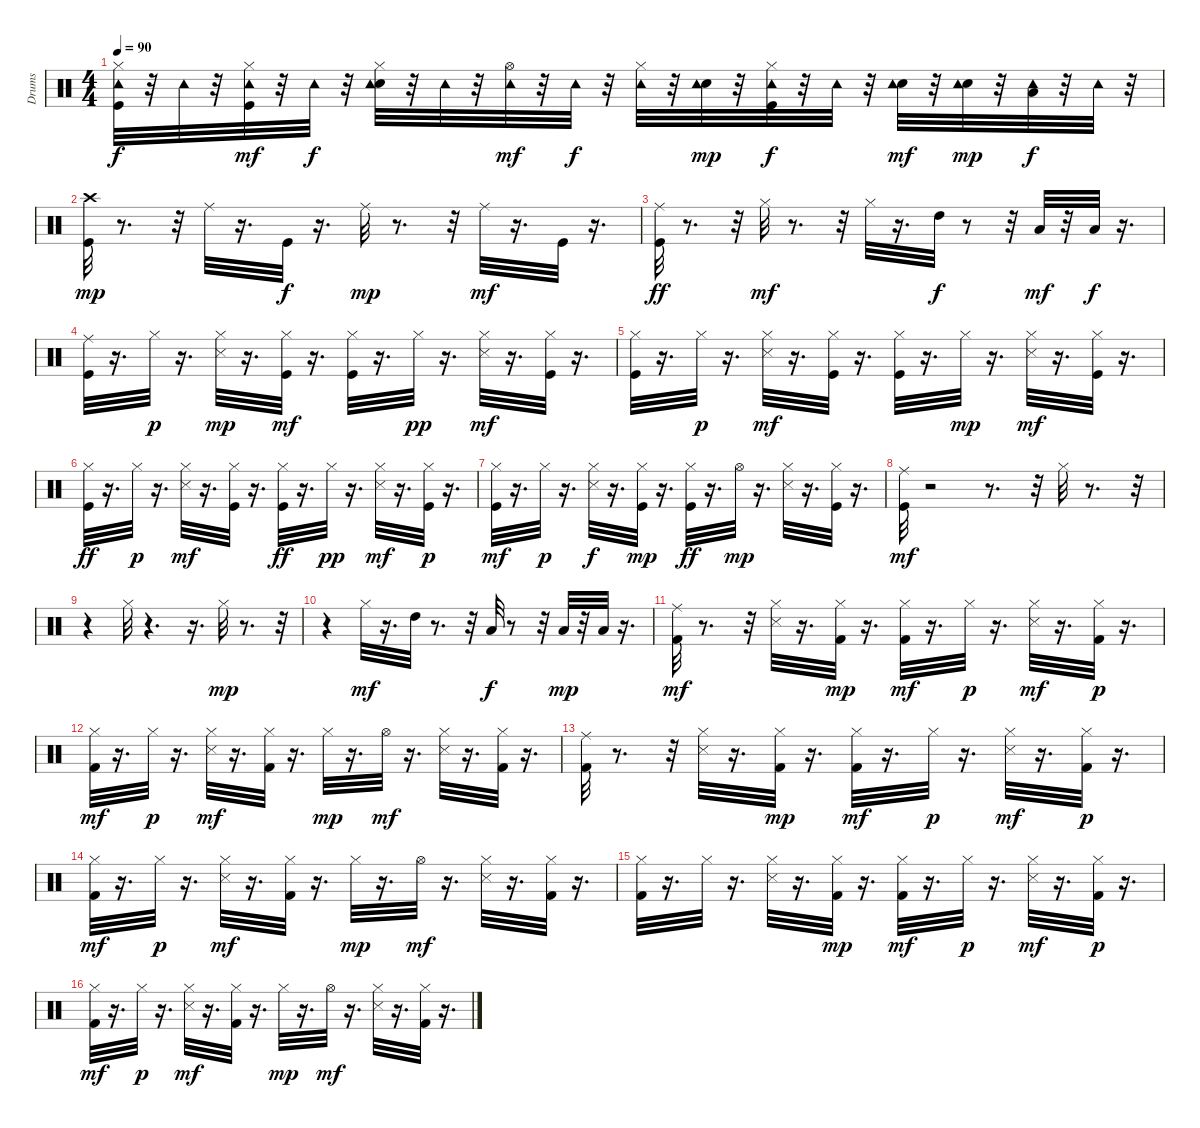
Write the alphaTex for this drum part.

\track ("Drums               " "Drums     ") {instrument percussion}
\staff {score}
\articulation defaults
\ts (4 4)
\tempo 90
\clef neutral
\ks c
("Hi-Hat (closed)" "Kick (hit)" "Tambourine (hit)").32{dy f} r.32 "Tambourine (hit)".32 r.32 ("Hi-Hat (closed)" "Kick (hit)" "Tambourine (hit)").32{dy mf} r.32 "Tambourine (hit)".32{dy f} r.32 ("Hi-Hat (closed)" "Electric Snare (hit)" "Tambourine (hit)").32 r.32 "Tambourine (hit)".32 r.32 ("Hi-Hat (open)" "Tambourine (hit)").32{dy mf} r.32 "Tambourine (hit)".32{dy f} r.32 ("Hi-Hat (closed)" "Tambourine (hit)").32 r.32 ("Electric Snare (hit)" "Tambourine (hit)").32{dy mp} r.32 ("Hi-Hat (closed)" "Kick (hit)" "Tambourine (hit)").32{dy f} r.32 "Tambourine (hit)".32 r.32 ("Electric Snare (hit)" "Tambourine (hit)").32{dy mf} r.32 ("Electric Snare (hit)" "Tambourine (hit)").32{dy mp} r.32 ("Low Tom (hit)" "Tambourine (hit)").32{dy f} r.32 "Tambourine (hit)".32 r.32 |
("Crash high (hit)" "Kick (hit)").32{dy mp} r.8{d} r.32 "Ride (middle)".32 r.16{d} "Kick (hit)".32{dy f} r.16{d} "Ride (middle)".32{dy mp} r.8{d} r.32 "Ride (middle)".32{dy mf} r.16{d} "Kick (hit)".32 r.16{d} |
("Kick (hit)" "Ride (middle)").32{dy ff} r.8{d} r.32 "Hi-Hat (closed)".32{dy mf} r.8{d} r.32 "Hi-Hat (closed)".32 r.16{d} "High Tom (hit)".32{dy f} r.8 r.32 "Low Tom (hit)".32{dy mf} r.32 "Low Floor Tom (hit)".32{dy f} r.16{d} |
("Ride (middle)" "Kick (hit)").32 r.16{d} "Hi-Hat (closed)".32{dy p} r.16{d} ("Snare (side stick) 3" "Hi-Hat (closed)").32{dy mp} r.16{d} ("Hi-Hat (closed)" "Kick (hit)").32{dy mf} r.16{d} ("Hi-Hat (closed)" "Kick (hit)").32 r.16{d} "Hi-Hat (closed)".32{dy pp} r.16{d} ("Hi-Hat (closed)" "Snare (side stick) 3").32{dy mf} r.16{d} ("Hi-Hat (closed)" "Kick (hit)").32 r.16{d} |
("Hi-Hat (closed)" "Kick (hit)").32 r.16{d} "Hi-Hat (closed)".32{dy p} r.16{d} ("Hi-Hat (closed)" "Snare (side stick) 3").32{dy mf} r.16{d} ("Hi-Hat (closed)" "Kick (hit)").32 r.16{d} ("Hi-Hat (closed)" "Kick (hit)").32 r.16{d} "Hi-Hat (closed)".32{dy mp} r.16{d} ("Hi-Hat (closed)" "Snare (side stick) 3").32{dy mf} r.16{d} ("Hi-Hat (closed)" "Kick (hit)").32 r.16{d} |
("Hi-Hat (closed)" "Kick (hit)").32{dy ff} r.16{d} "Hi-Hat (closed)".32{dy p} r.16{d} ("Hi-Hat (closed)" "Snare (side stick) 3").32{dy mf} r.16{d} ("Hi-Hat (closed)" "Kick (hit)").32 r.16{d} ("Hi-Hat (closed)" "Kick (hit)").32{dy ff} r.16{d} "Hi-Hat (closed)".32{dy pp} r.16{d} ("Hi-Hat (closed)" "Snare (side stick) 3").32{dy mf} r.16{d} ("Kick (hit)" "Hi-Hat (closed)").32{dy p} r.16{d} |
("Kick (hit)" "Hi-Hat (closed)").32{dy mf} r.16{d} "Hi-Hat (closed)".32{dy p} r.16{d} ("Hi-Hat (closed)" "Snare (side stick) 3").32{dy f} r.16{d} ("Hi-Hat (closed)" "Kick (hit)").32{dy mp} r.16{d} ("Hi-Hat (closed)" "Kick (hit)").32{dy ff} r.16{d} "Hi-Hat (open)".32{dy mp} r.16{d} ("Snare (side stick) 3" "Hi-Hat (closed)").32 r.16{d} ("Kick (hit)" "Hi-Hat (closed)").32 r.16{d} |
("Kick (hit)" "Ride (middle)").32{dy mf} r.2 r.8{d} r.32 "Hi-Hat (closed)".32 r.8{d} r.32 |
r.4 "Hi-Hat (closed)".32 r.4{d} r.16{d} "Hi-Hat (closed)".32{dy mp} r.8{d} r.32 |
r.4 "Hi-Hat (closed)".32{dy mf} r.16{d} "High Tom (hit)".32 r.8{d} r.32 "Low Tom (hit)".32{dy f} r.8 r.32 "Low Floor Tom (hit)".32{dy mp} r.32 "Low Floor Tom (hit)".32 r.16{d} |
("Ride (middle)" "Kick (hit) 2").32{dy mf} r.8{d} r.32 ("Snare (side stick) 3" "Hi-Hat (closed)").32 r.16{d} ("Hi-Hat (closed)" "Kick (hit) 2").32{dy mp} r.16{d} ("Kick (hit) 2" "Hi-Hat (closed)").32{dy mf} r.16{d} "Hi-Hat (closed)".32{dy p} r.16{d} ("Snare (side stick) 3" "Hi-Hat (closed)").32{dy mf} r.16{d} ("Kick (hit) 2" "Hi-Hat (closed)").32{dy p} r.16{d} |
("Kick (hit) 2" "Hi-Hat (closed)").32{dy mf} r.16{d} "Hi-Hat (closed)".32{dy p} r.16{d} ("Hi-Hat (closed)" "Snare (side stick) 3").32{dy mf} r.16{d} ("Hi-Hat (closed)" "Kick (hit) 2").32 r.16{d} "Hi-Hat (closed)".32{dy mp} r.16{d} "Hi-Hat (open)".32{dy mf} r.16{d} ("Hi-Hat (closed)" "Snare (side stick) 3").32 r.16{d} ("Hi-Hat (closed)" "Kick (hit) 2").32 r.16{d} |
("Ride (middle)" "Kick (hit) 2").32 r.8{d} r.32 ("Snare (side stick) 3" "Hi-Hat (closed)").32 r.16{d} ("Hi-Hat (closed)" "Kick (hit) 2").32{dy mp} r.16{d} ("Kick (hit) 2" "Hi-Hat (closed)").32{dy mf} r.16{d} "Hi-Hat (closed)".32{dy p} r.16{d} ("Snare (side stick) 3" "Hi-Hat (closed)").32{dy mf} r.16{d} ("Kick (hit) 2" "Hi-Hat (closed)").32{dy p} r.16{d} |
("Kick (hit) 2" "Hi-Hat (closed)").32{dy mf} r.16{d} "Hi-Hat (closed)".32{dy p} r.16{d} ("Hi-Hat (closed)" "Snare (side stick) 3").32{dy mf} r.16{d} ("Hi-Hat (closed)" "Kick (hit) 2").32 r.16{d} "Hi-Hat (closed)".32{dy mp} r.16{d} "Hi-Hat (open)".32{dy mf} r.16{d} ("Hi-Hat (closed)" "Snare (side stick) 3").32 r.16{d} ("Hi-Hat (closed)" "Kick (hit) 2").32 r.16{d} |
("Hi-Hat (closed)" "Kick (hit) 2").32 r.16{d} "Hi-Hat (closed)".32 r.16{d} ("Snare (side stick) 3" "Hi-Hat (closed)").32 r.16{d} ("Hi-Hat (closed)" "Kick (hit) 2").32{dy mp} r.16{d} ("Kick (hit) 2" "Hi-Hat (closed)").32{dy mf} r.16{d} "Hi-Hat (closed)".32{dy p} r.16{d} ("Snare (side stick) 3" "Hi-Hat (closed)").32{dy mf} r.16{d} ("Kick (hit) 2" "Hi-Hat (closed)").32{dy p} r.16{d} |
("Kick (hit) 2" "Hi-Hat (closed)").32{dy mf} r.16{d} "Hi-Hat (closed)".32{dy p} r.16{d} ("Hi-Hat (closed)" "Snare (side stick) 3").32{dy mf} r.16{d} ("Hi-Hat (closed)" "Kick (hit) 2").32 r.16{d} "Hi-Hat (closed)".32{dy mp} r.16{d} "Hi-Hat (open)".32{dy mf} r.16{d} ("Hi-Hat (closed)" "Snare (side stick) 3").32 r.16{d} ("Hi-Hat (closed)" "Kick (hit) 2").32 r.16{d}
